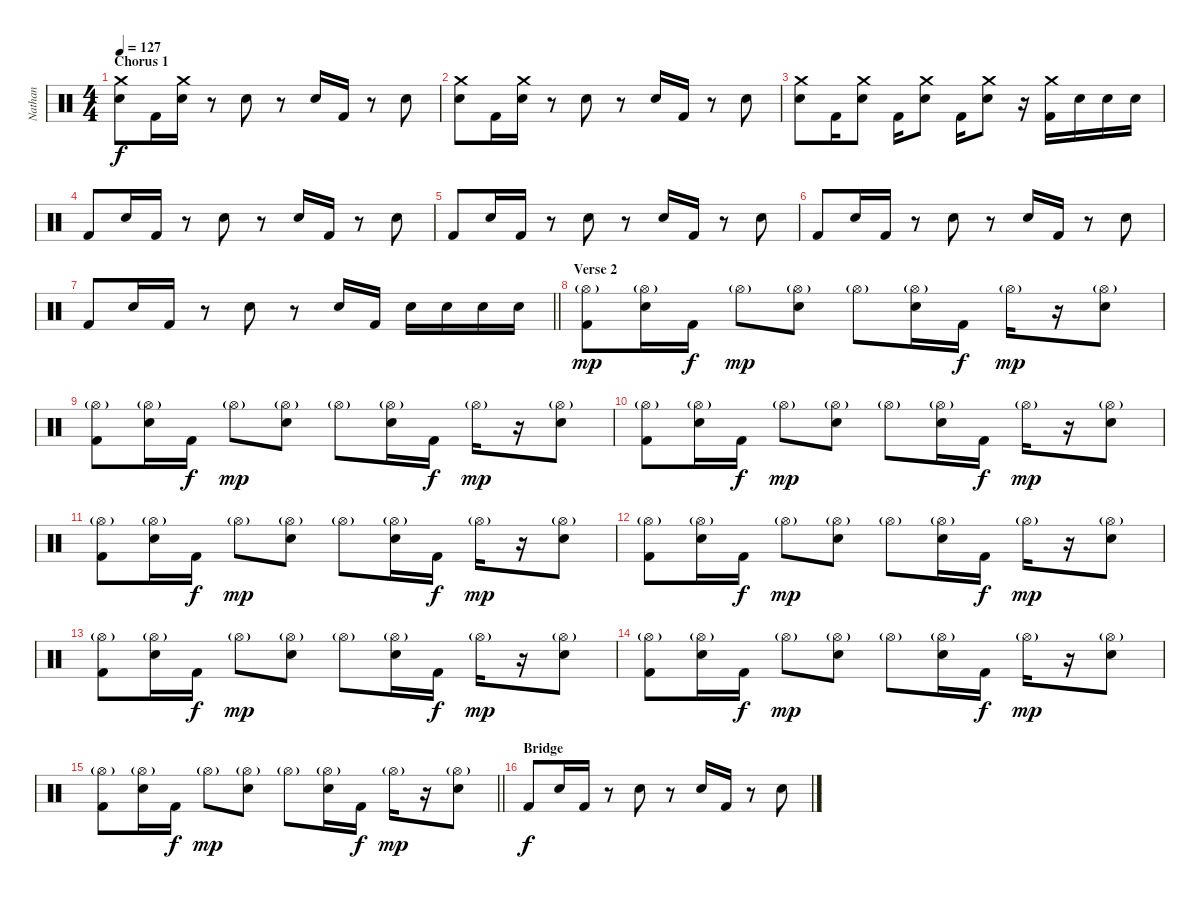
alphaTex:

\track ("Nathan" "Nathan") {instrument percussion}
\staff {score}
\articulation defaults
\ts (4 4)
\section ("" "Chorus 1")
\tempo 127
\clef neutral
\ks c
("Crash medium (hit)" "Electric Snare (hit)").8{dy f} "Kick (hit) 2".16 ("Crash medium (hit)" "Electric Snare (hit)").16 r.8 "Electric Snare (hit)".8 r.8 "Electric Snare (hit)".16 "Kick (hit) 2".16 r.8 "Electric Snare (hit)".8 |
("Crash medium (hit)" "Electric Snare (hit)").8 "Kick (hit) 2".16 ("Crash medium (hit)" "Electric Snare (hit)").16 r.8 "Electric Snare (hit)".8 r.8 "Electric Snare (hit)".16 "Kick (hit) 2".16 r.8 "Electric Snare (hit)".8 |
("Crash medium (hit)" "Electric Snare (hit)").8 "Kick (hit) 2".16 ("Crash medium (hit)" "Electric Snare (hit)").8 "Kick (hit) 2".16 ("Crash medium (hit)" "Electric Snare (hit)").8 "Kick (hit) 2".16 ("Crash medium (hit)" "Electric Snare (hit)").8 r.16 ("Crash medium (hit)" "Kick (hit) 2").16 "Electric Snare (hit)".16 "Electric Snare (hit)".16 "Electric Snare (hit)".16 |
"Kick (hit) 2".8 "Electric Snare (hit)".16 "Kick (hit) 2".16 r.8 "Electric Snare (hit)".8 r.8 "Electric Snare (hit)".16 "Kick (hit) 2".16 r.8 "Electric Snare (hit)".8 |
"Kick (hit) 2".8 "Electric Snare (hit)".16 "Kick (hit) 2".16 r.8 "Electric Snare (hit)".8 r.8 "Electric Snare (hit)".16 "Kick (hit) 2".16 r.8 "Electric Snare (hit)".8 |
"Kick (hit) 2".8 "Electric Snare (hit)".16 "Kick (hit) 2".16 r.8 "Electric Snare (hit)".8 r.8 "Electric Snare (hit)".16 "Kick (hit) 2".16 r.8 "Electric Snare (hit)".8 |
\barLineRight lightlight "Kick (hit) 2".8 "Electric Snare (hit)".16 "Kick (hit) 2".16
r.8 "Electric Snare (hit)".8 r.8 "Electric Snare (hit)".16 "Kick (hit) 2".16 "Electric Snare (hit)".16 "Electric Snare (hit)".16 "Electric Snare (hit)".16 "Electric Snare (hit)".16 |
\section ("" "Verse 2")
("Hi-Hat (open)"{g} "Kick (hit) 2").8{dy mp} ("Hi-Hat (open)"{g} "Electric Snare (hit)").16 "Kick (hit) 2".16{dy f} "Hi-Hat (open)"{g}.8{dy mp} ("Hi-Hat (open)"{g} "Electric Snare (hit)").8 "Hi-Hat (open)"{g}.8 ("Hi-Hat (open)"{g} "Electric Snare (hit)").16 "Kick (hit) 2".16{dy f} "Hi-Hat (open)"{g}.16{dy mp} r.16 ("Hi-Hat (open)"{g} "Electric Snare (hit)").8 |
("Hi-Hat (open)"{g} "Kick (hit) 2").8 ("Hi-Hat (open)"{g} "Electric Snare (hit)").16 "Kick (hit) 2".16{dy f} "Hi-Hat (open)"{g}.8{dy mp} ("Hi-Hat (open)"{g} "Electric Snare (hit)").8 "Hi-Hat (open)"{g}.8 ("Hi-Hat (open)"{g} "Electric Snare (hit)").16 "Kick (hit) 2".16{dy f} "Hi-Hat (open)"{g}.16{dy mp} r.16 ("Hi-Hat (open)"{g} "Electric Snare (hit)").8 |
("Hi-Hat (open)"{g} "Kick (hit) 2").8 ("Hi-Hat (open)"{g} "Electric Snare (hit)").16 "Kick (hit) 2".16{dy f} "Hi-Hat (open)"{g}.8{dy mp} ("Hi-Hat (open)"{g} "Electric Snare (hit)").8 "Hi-Hat (open)"{g}.8 ("Hi-Hat (open)"{g} "Electric Snare (hit)").16 "Kick (hit) 2".16{dy f} "Hi-Hat (open)"{g}.16{dy mp} r.16 ("Hi-Hat (open)"{g} "Electric Snare (hit)").8 |
("Hi-Hat (open)"{g} "Kick (hit) 2").8 ("Hi-Hat (open)"{g} "Electric Snare (hit)").16 "Kick (hit) 2".16{dy f} "Hi-Hat (open)"{g}.8{dy mp} ("Hi-Hat (open)"{g} "Electric Snare (hit)").8 "Hi-Hat (open)"{g}.8 ("Hi-Hat (open)"{g} "Electric Snare (hit)").16 "Kick (hit) 2".16{dy f} "Hi-Hat (open)"{g}.16{dy mp} r.16 ("Hi-Hat (open)"{g} "Electric Snare (hit)").8 |
("Hi-Hat (open)"{g} "Kick (hit) 2").8 ("Hi-Hat (open)"{g} "Electric Snare (hit)").16 "Kick (hit) 2".16{dy f} "Hi-Hat (open)"{g}.8{dy mp} ("Hi-Hat (open)"{g} "Electric Snare (hit)").8 "Hi-Hat (open)"{g}.8 ("Hi-Hat (open)"{g} "Electric Snare (hit)").16 "Kick (hit) 2".16{dy f} "Hi-Hat (open)"{g}.16{dy mp} r.16 ("Hi-Hat (open)"{g} "Electric Snare (hit)").8 |
("Hi-Hat (open)"{g} "Kick (hit) 2").8 ("Hi-Hat (open)"{g} "Electric Snare (hit)").16 "Kick (hit) 2".16{dy f} "Hi-Hat (open)"{g}.8{dy mp} ("Hi-Hat (open)"{g} "Electric Snare (hit)").8 "Hi-Hat (open)"{g}.8 ("Hi-Hat (open)"{g} "Electric Snare (hit)").16 "Kick (hit) 2".16{dy f} "Hi-Hat (open)"{g}.16{dy mp} r.16 ("Hi-Hat (open)"{g} "Electric Snare (hit)").8 |
("Hi-Hat (open)"{g} "Kick (hit) 2").8 ("Hi-Hat (open)"{g} "Electric Snare (hit)").16 "Kick (hit) 2".16{dy f} "Hi-Hat (open)"{g}.8{dy mp} ("Hi-Hat (open)"{g} "Electric Snare (hit)").8 "Hi-Hat (open)"{g}.8 ("Hi-Hat (open)"{g} "Electric Snare (hit)").16 "Kick (hit) 2".16{dy f} "Hi-Hat (open)"{g}.16{dy mp} r.16 ("Hi-Hat (open)"{g} "Electric Snare (hit)").8 |
\barLineRight lightlight
("Hi-Hat (open)"{g} "Kick (hit) 2").8 ("Hi-Hat (open)"{g} "Electric Snare (hit)").16 "Kick (hit) 2".16{dy f} "Hi-Hat (open)"{g}.8{dy mp} ("Hi-Hat (open)"{g} "Electric Snare (hit)").8 "Hi-Hat (open)"{g}.8 ("Hi-Hat (open)"{g} "Electric Snare (hit)").16 "Kick (hit) 2".16{dy f} "Hi-Hat (open)"{g}.16{dy mp} r.16 ("Hi-Hat (open)"{g} "Electric Snare (hit)").8 |
\section ("" "Bridge")
"Kick (hit) 2".8{dy f} "Electric Snare (hit)".16 "Kick (hit) 2".16 r.8 "Electric Snare (hit)".8 r.8 "Electric Snare (hit)".16 "Kick (hit) 2".16 r.8 "Electric Snare (hit)".8
